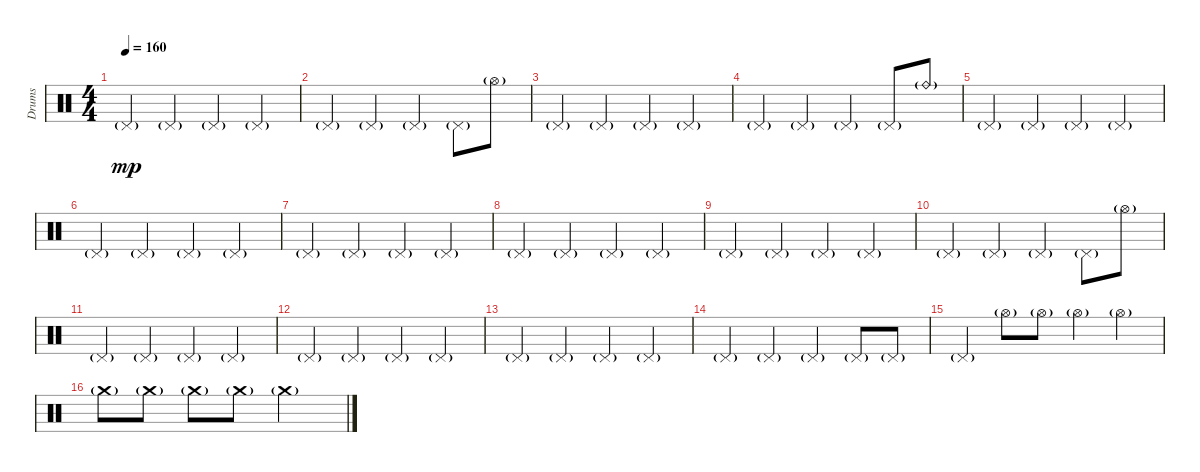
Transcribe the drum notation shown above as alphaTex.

\track ("Drums" "Drums") {instrument percussion}
\staff {score}
\articulation defaults
\ts (4 4)
\tempo 160
\clef neutral
\ks c "Pedal Hi-Hat (hit)"{g}.4{dy mp} "Pedal Hi-Hat (hit)"{g}.4 "Pedal Hi-Hat (hit)"{g}.4 "Pedal Hi-Hat (hit)"{g}.4
|
"Pedal Hi-Hat (hit)"{g}.4 "Pedal Hi-Hat (hit)"{g}.4 "Pedal Hi-Hat (hit)"{g}.4 "Pedal Hi-Hat (hit)"{g}.8 "Hi-Hat (open)"{g}.8 |
"Pedal Hi-Hat (hit)"{g}.4 "Pedal Hi-Hat (hit)"{g}.4 "Pedal Hi-Hat (hit)"{g}.4 "Pedal Hi-Hat (hit)"{g}.4 |
"Pedal Hi-Hat (hit)"{g}.4 "Pedal Hi-Hat (hit)"{g}.4 "Pedal Hi-Hat (hit)"{g}.4 "Pedal Hi-Hat (hit)"{g}.8 "Ride (bell)"{g}.8 |
"Pedal Hi-Hat (hit)"{g}.4 "Pedal Hi-Hat (hit)"{g}.4 "Pedal Hi-Hat (hit)"{g}.4 "Pedal Hi-Hat (hit)"{g}.4 |
"Pedal Hi-Hat (hit)"{g}.4 "Pedal Hi-Hat (hit)"{g}.4 "Pedal Hi-Hat (hit)"{g}.4 "Pedal Hi-Hat (hit)"{g}.4 |
"Pedal Hi-Hat (hit)"{g}.4 "Pedal Hi-Hat (hit)"{g}.4 "Pedal Hi-Hat (hit)"{g}.4 "Pedal Hi-Hat (hit)"{g}.4 |
"Pedal Hi-Hat (hit)"{g}.4 "Pedal Hi-Hat (hit)"{g}.4 "Pedal Hi-Hat (hit)"{g}.4 "Pedal Hi-Hat (hit)"{g}.4 |
"Pedal Hi-Hat (hit)"{g}.4 "Pedal Hi-Hat (hit)"{g}.4 "Pedal Hi-Hat (hit)"{g}.4 "Pedal Hi-Hat (hit)"{g}.4 |
"Pedal Hi-Hat (hit)"{g}.4 "Pedal Hi-Hat (hit)"{g}.4 "Pedal Hi-Hat (hit)"{g}.4 "Pedal Hi-Hat (hit)"{g}.8 "Hi-Hat (open)"{g}.8 |
"Pedal Hi-Hat (hit)"{g}.4 "Pedal Hi-Hat (hit)"{g}.4 "Pedal Hi-Hat (hit)"{g}.4 "Pedal Hi-Hat (hit)"{g}.4 |
"Pedal Hi-Hat (hit)"{g}.4 "Pedal Hi-Hat (hit)"{g}.4 "Pedal Hi-Hat (hit)"{g}.4 "Pedal Hi-Hat (hit)"{g}.4 |
"Pedal Hi-Hat (hit)"{g}.4 "Pedal Hi-Hat (hit)"{g}.4 "Pedal Hi-Hat (hit)"{g}.4 "Pedal Hi-Hat (hit)"{g}.4 |
"Pedal Hi-Hat (hit)"{g}.4 "Pedal Hi-Hat (hit)"{g}.4 "Pedal Hi-Hat (hit)"{g}.4 "Pedal Hi-Hat (hit)"{g}.8 "Pedal Hi-Hat (hit)"{g}.8 |
"Pedal Hi-Hat (hit)"{g}.4 "Hi-Hat (open)"{g}.8 "Hi-Hat (open)"{g}.8 "Hi-Hat (open)"{g}.4 "Hi-Hat (open)"{g}.4 |
"Crash medium (hit)"{g}.8 "Crash medium (hit)"{g}.8 "Crash medium (hit)"{g}.8 "Crash medium (hit)"{g}.8 "Crash medium (hit)"{g}.2
